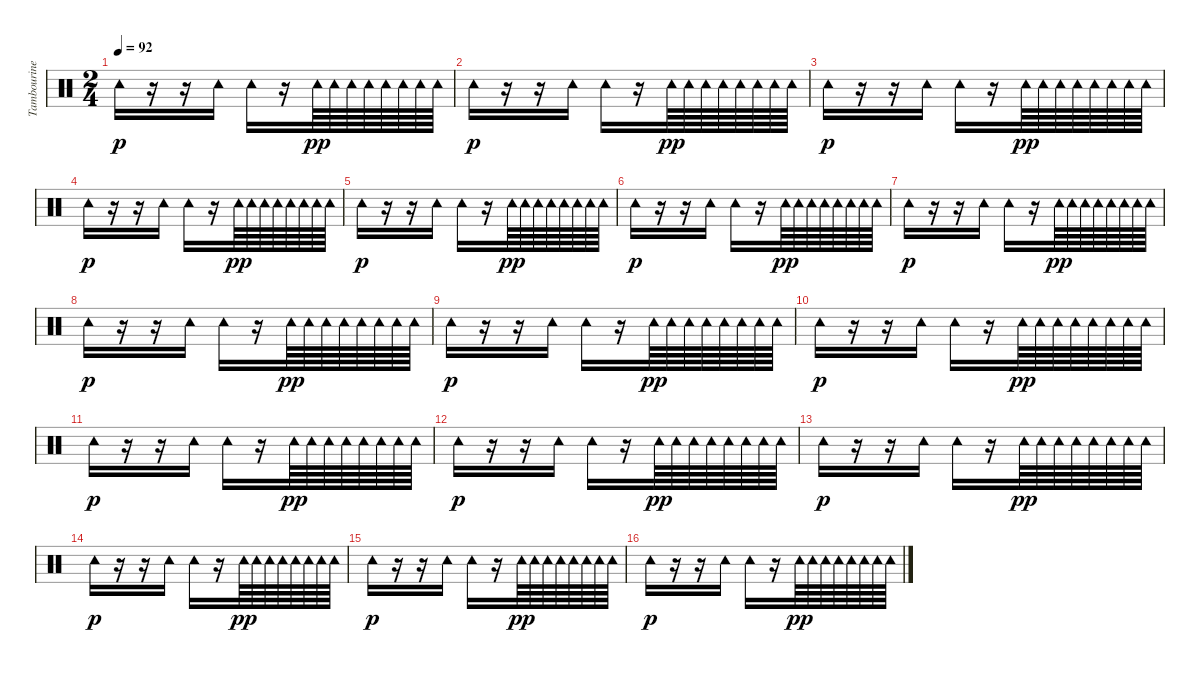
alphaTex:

\track ("Tambourine" "Tambourine") {instrument percussion}
\staff {score}
\articulation defaults
\ts (2 4)
\tempo 92
\clef neutral
\ks c "Tambourine (hit)".16{dy p volume 13}
r.16 r.16 "Tambourine (hit)".16 "Tambourine (hit)".16 r.16 "Tambourine (hit)".64{dy pp} "Tambourine (hit)".64 "Tambourine (hit)".64 "Tambourine (hit)".64 "Tambourine (hit)".64 "Tambourine (hit)".64 "Tambourine (hit)".64 "Tambourine (hit)".64 |
"Tambourine (hit)".16{dy p volume 13} r.16 r.16 "Tambourine (hit)".16 "Tambourine (hit)".16 r.16 "Tambourine (hit)".64{dy pp} "Tambourine (hit)".64 "Tambourine (hit)".64 "Tambourine (hit)".64 "Tambourine (hit)".64 "Tambourine (hit)".64 "Tambourine (hit)".64 "Tambourine (hit)".64 |
"Tambourine (hit)".16{dy p volume 13} r.16 r.16 "Tambourine (hit)".16 "Tambourine (hit)".16 r.16 "Tambourine (hit)".64{dy pp} "Tambourine (hit)".64 "Tambourine (hit)".64 "Tambourine (hit)".64 "Tambourine (hit)".64 "Tambourine (hit)".64 "Tambourine (hit)".64 "Tambourine (hit)".64 |
"Tambourine (hit)".16{dy p volume 13} r.16 r.16 "Tambourine (hit)".16 "Tambourine (hit)".16 r.16 "Tambourine (hit)".64{dy pp} "Tambourine (hit)".64 "Tambourine (hit)".64 "Tambourine (hit)".64 "Tambourine (hit)".64 "Tambourine (hit)".64 "Tambourine (hit)".64 "Tambourine (hit)".64 |
"Tambourine (hit)".16{dy p volume 13} r.16 r.16 "Tambourine (hit)".16 "Tambourine (hit)".16 r.16 "Tambourine (hit)".64{dy pp} "Tambourine (hit)".64 "Tambourine (hit)".64 "Tambourine (hit)".64 "Tambourine (hit)".64 "Tambourine (hit)".64 "Tambourine (hit)".64 "Tambourine (hit)".64 |
"Tambourine (hit)".16{dy p volume 13} r.16 r.16 "Tambourine (hit)".16 "Tambourine (hit)".16 r.16 "Tambourine (hit)".64{dy pp} "Tambourine (hit)".64 "Tambourine (hit)".64 "Tambourine (hit)".64 "Tambourine (hit)".64 "Tambourine (hit)".64 "Tambourine (hit)".64 "Tambourine (hit)".64 |
"Tambourine (hit)".16{dy p volume 13} r.16 r.16 "Tambourine (hit)".16 "Tambourine (hit)".16 r.16 "Tambourine (hit)".64{dy pp} "Tambourine (hit)".64 "Tambourine (hit)".64 "Tambourine (hit)".64 "Tambourine (hit)".64 "Tambourine (hit)".64 "Tambourine (hit)".64 "Tambourine (hit)".64 |
"Tambourine (hit)".16{dy p volume 13} r.16 r.16 "Tambourine (hit)".16 "Tambourine (hit)".16 r.16 "Tambourine (hit)".64{dy pp} "Tambourine (hit)".64 "Tambourine (hit)".64 "Tambourine (hit)".64 "Tambourine (hit)".64 "Tambourine (hit)".64 "Tambourine (hit)".64 "Tambourine (hit)".64 |
"Tambourine (hit)".16{dy p volume 13} r.16 r.16 "Tambourine (hit)".16 "Tambourine (hit)".16 r.16 "Tambourine (hit)".64{dy pp} "Tambourine (hit)".64 "Tambourine (hit)".64 "Tambourine (hit)".64 "Tambourine (hit)".64 "Tambourine (hit)".64 "Tambourine (hit)".64 "Tambourine (hit)".64 |
"Tambourine (hit)".16{dy p volume 13} r.16 r.16 "Tambourine (hit)".16 "Tambourine (hit)".16 r.16 "Tambourine (hit)".64{dy pp} "Tambourine (hit)".64 "Tambourine (hit)".64 "Tambourine (hit)".64 "Tambourine (hit)".64 "Tambourine (hit)".64 "Tambourine (hit)".64 "Tambourine (hit)".64 |
"Tambourine (hit)".16{dy p volume 13} r.16 r.16 "Tambourine (hit)".16 "Tambourine (hit)".16 r.16 "Tambourine (hit)".64{dy pp} "Tambourine (hit)".64 "Tambourine (hit)".64 "Tambourine (hit)".64 "Tambourine (hit)".64 "Tambourine (hit)".64 "Tambourine (hit)".64 "Tambourine (hit)".64 |
"Tambourine (hit)".16{dy p volume 13} r.16 r.16 "Tambourine (hit)".16 "Tambourine (hit)".16 r.16 "Tambourine (hit)".64{dy pp} "Tambourine (hit)".64 "Tambourine (hit)".64 "Tambourine (hit)".64 "Tambourine (hit)".64 "Tambourine (hit)".64 "Tambourine (hit)".64 "Tambourine (hit)".64 |
"Tambourine (hit)".16{dy p volume 13} r.16 r.16 "Tambourine (hit)".16 "Tambourine (hit)".16 r.16 "Tambourine (hit)".64{dy pp} "Tambourine (hit)".64 "Tambourine (hit)".64 "Tambourine (hit)".64 "Tambourine (hit)".64 "Tambourine (hit)".64 "Tambourine (hit)".64 "Tambourine (hit)".64 |
"Tambourine (hit)".16{dy p volume 13} r.16 r.16 "Tambourine (hit)".16 "Tambourine (hit)".16 r.16 "Tambourine (hit)".64{dy pp} "Tambourine (hit)".64 "Tambourine (hit)".64 "Tambourine (hit)".64 "Tambourine (hit)".64 "Tambourine (hit)".64 "Tambourine (hit)".64 "Tambourine (hit)".64 |
"Tambourine (hit)".16{dy p volume 13} r.16 r.16 "Tambourine (hit)".16 "Tambourine (hit)".16 r.16 "Tambourine (hit)".64{dy pp} "Tambourine (hit)".64 "Tambourine (hit)".64 "Tambourine (hit)".64 "Tambourine (hit)".64 "Tambourine (hit)".64 "Tambourine (hit)".64 "Tambourine (hit)".64 |
"Tambourine (hit)".16{dy p volume 13} r.16 r.16 "Tambourine (hit)".16 "Tambourine (hit)".16 r.16 "Tambourine (hit)".64{dy pp} "Tambourine (hit)".64 "Tambourine (hit)".64 "Tambourine (hit)".64 "Tambourine (hit)".64 "Tambourine (hit)".64 "Tambourine (hit)".64 "Tambourine (hit)".64
